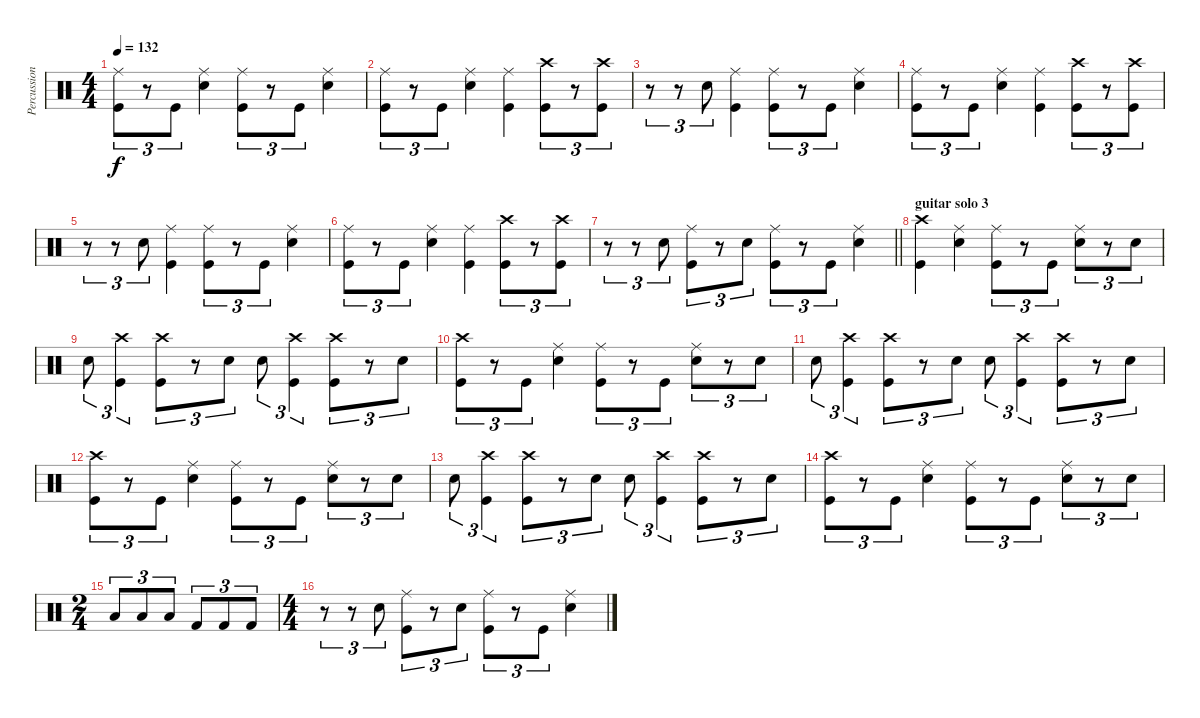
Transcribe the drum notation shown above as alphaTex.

\track ("Percussion" "Percussion") {instrument percussion}
\staff {score}
\articulation defaults
\ts (4 4)
\tempo 132
\clef neutral
\ks c
("Ride (middle)" "Kick (hit)").8{tu (3 2) dy f} r.8{tu (3 2)} "Kick (hit)".8{tu (3 2)} ("Ride (middle)" "Snare (hit) 2").4 ("Ride (middle)" "Kick (hit)").8{tu (3 2)} r.8{tu (3 2)} "Kick (hit)".8{tu (3 2)} ("Ride (middle)" "Snare (hit) 2").4 |
("Ride (middle)" "Kick (hit)").8{tu (3 2)} r.8{tu (3 2)} "Kick (hit)".8{tu (3 2)} ("Snare (hit) 2" "Ride (middle)").4 ("Ride (middle)" "Kick (hit)").4 ("Crash high (hit)" "Kick (hit)").8{tu (3 2)} r.8{tu (3 2)} ("Crash high (hit)" "Kick (hit)").8{tu (3 2)} |
r.8{tu (3 2)} r.8{tu (3 2)} "Snare (hit) 2".8{tu (3 2)} ("Ride (middle)" "Kick (hit)").4 ("Kick (hit)" "Ride (middle)").8{tu (3 2)} r.8{tu (3 2)} "Kick (hit)".8{tu (3 2)} ("Ride (middle)" "Snare (hit) 2").4 |
("Ride (middle)" "Kick (hit)").8{tu (3 2)} r.8{tu (3 2)} "Kick (hit)".8{tu (3 2)} ("Snare (hit) 2" "Ride (middle)").4 ("Ride (middle)" "Kick (hit)").4 ("Crash high (hit)" "Kick (hit)").8{tu (3 2)} r.8{tu (3 2)} ("Crash high (hit)" "Kick (hit)").8{tu (3 2)} |
r.8{tu (3 2)} r.8{tu (3 2)} "Snare (hit) 2".8{tu (3 2)} ("Ride (middle)" "Kick (hit)").4 ("Ride (middle)" "Kick (hit)").8{tu (3 2)} r.8{tu (3 2)} "Kick (hit)".8{tu (3 2)} ("Ride (middle)" "Snare (hit) 2").4 |
("Kick (hit)" "Ride (middle)").8{tu (3 2)} r.8{tu (3 2)} "Kick (hit)".8{tu (3 2)} ("Snare (hit) 2" "Ride (middle)").4 ("Ride (middle)" "Kick (hit)").4 ("Crash high (hit)" "Kick (hit)").8{tu (3 2)} r.8{tu (3 2)} ("Kick (hit)" "Crash high (hit)").8{tu (3 2)} |
\barLineRight lightlight
r.8{tu (3 2)} r.8{tu (3 2)} "Snare (hit) 2".8{tu (3 2)} ("Ride (middle)" "Kick (hit)").8{tu (3 2)} r.8{tu (3 2)} "Snare (hit) 2".8{tu (3 2)} ("Ride (middle)" "Kick (hit)").8{tu (3 2)} r.8{tu (3 2)} "Kick (hit)".8{tu (3 2)} ("Snare (hit) 2" "Ride (middle)").4 |
\section ("" "guitar solo 3")
("Kick (hit)" "Crash high (hit)").4 ("Ride (middle)" "Snare (hit) 2").4 ("Ride (middle)" "Kick (hit)").8{tu (3 2)} r.8{tu (3 2)} "Kick (hit)".8{tu (3 2)} ("Ride (middle)" "Snare (hit) 2").8{tu (3 2)} r.8{tu (3 2)} "Snare (hit) 2".8{tu (3 2)} |
"Snare (hit) 2".8{tu (3 2)} ("Kick (hit)" "Crash high (hit)").4{tu (3 2)} ("Crash high (hit)" "Kick (hit)").8{tu (3 2)} r.8{tu (3 2)} "Snare (hit) 2".8{tu (3 2)} "Snare (hit) 2".8{tu (3 2)} ("Crash high (hit)" "Kick (hit)").4{tu (3 2)} ("Crash high (hit)" "Kick (hit)").8{tu (3 2)} r.8{tu (3 2)} "Snare (hit) 2".8{tu (3 2)} |
("Crash high (hit)" "Kick (hit)").8{tu (3 2)} r.8{tu (3 2)} "Kick (hit)".8{tu (3 2)} ("Ride (middle)" "Snare (hit) 2").4 ("Kick (hit)" "Ride (middle)").8{tu (3 2)} r.8{tu (3 2)} "Kick (hit)".8{tu (3 2)} ("Snare (hit) 2" "Ride (middle)").8{tu (3 2)} r.8{tu (3 2)} "Snare (hit) 2".8{tu (3 2)} |
"Snare (hit) 2".8{tu (3 2)} ("Kick (hit)" "Crash high (hit)").4{tu (3 2)} ("Crash high (hit)" "Kick (hit)").8{tu (3 2)} r.8{tu (3 2)} "Snare (hit) 2".8{tu (3 2)} "Snare (hit) 2".8{tu (3 2)} ("Crash high (hit)" "Kick (hit)").4{tu (3 2)} ("Crash high (hit)" "Kick (hit)").8{tu (3 2)} r.8{tu (3 2)} "Snare (hit) 2".8{tu (3 2)} |
("Crash high (hit)" "Kick (hit)").8{tu (3 2)} r.8{tu (3 2)} "Kick (hit)".8{tu (3 2)} ("Ride (middle)" "Snare (hit) 2").4 ("Kick (hit)" "Ride (middle)").8{tu (3 2)} r.8{tu (3 2)} "Kick (hit)".8{tu (3 2)} ("Snare (hit) 2" "Ride (middle)").8{tu (3 2)} r.8{tu (3 2)} "Snare (hit) 2".8{tu (3 2)} |
"Snare (hit) 2".8{tu (3 2)} ("Kick (hit)" "Crash high (hit)").4{tu (3 2)} ("Crash high (hit)" "Kick (hit)").8{tu (3 2)} r.8{tu (3 2)} "Snare (hit) 2".8{tu (3 2)} "Snare (hit) 2".8{tu (3 2)} ("Crash high (hit)" "Kick (hit)").4{tu (3 2)} ("Crash high (hit)" "Kick (hit)").8{tu (3 2)} r.8{tu (3 2)} "Snare (hit) 2".8{tu (3 2)} |
("Crash high (hit)" "Kick (hit)").8{tu (3 2)} r.8{tu (3 2)} "Kick (hit)".8{tu (3 2)} ("Ride (middle)" "Snare (hit) 2").4 ("Kick (hit)" "Ride (middle)").8{tu (3 2)} r.8{tu (3 2)} "Kick (hit)".8{tu (3 2)} ("Snare (hit) 2" "Ride (middle)").8{tu (3 2)} r.8{tu (3 2)} "Snare (hit) 2".8{tu (3 2)} |
\ts (2 4)
"Low Floor Tom (hit)".8{tu (3 2)} "Low Floor Tom (hit)".8{tu (3 2)} "Low Floor Tom (hit)".8{tu (3 2)} "Kick (hit) 2".8{tu (3 2)} "Kick (hit) 2".8{tu (3 2)} "Kick (hit) 2".8{tu (3 2)} |
\ts (4 4)
r.8{tu (3 2)} r.8{tu (3 2)} "Snare (hit) 2".8{tu (3 2)} ("Ride (middle)" "Kick (hit)").8{tu (3 2)} r.8{tu (3 2)} "Snare (hit) 2".8{tu (3 2)} ("Ride (middle)" "Kick (hit)").8{tu (3 2)} r.8{tu (3 2)} "Kick (hit)".8{tu (3 2)} ("Snare (hit) 2" "Ride (middle)").4
